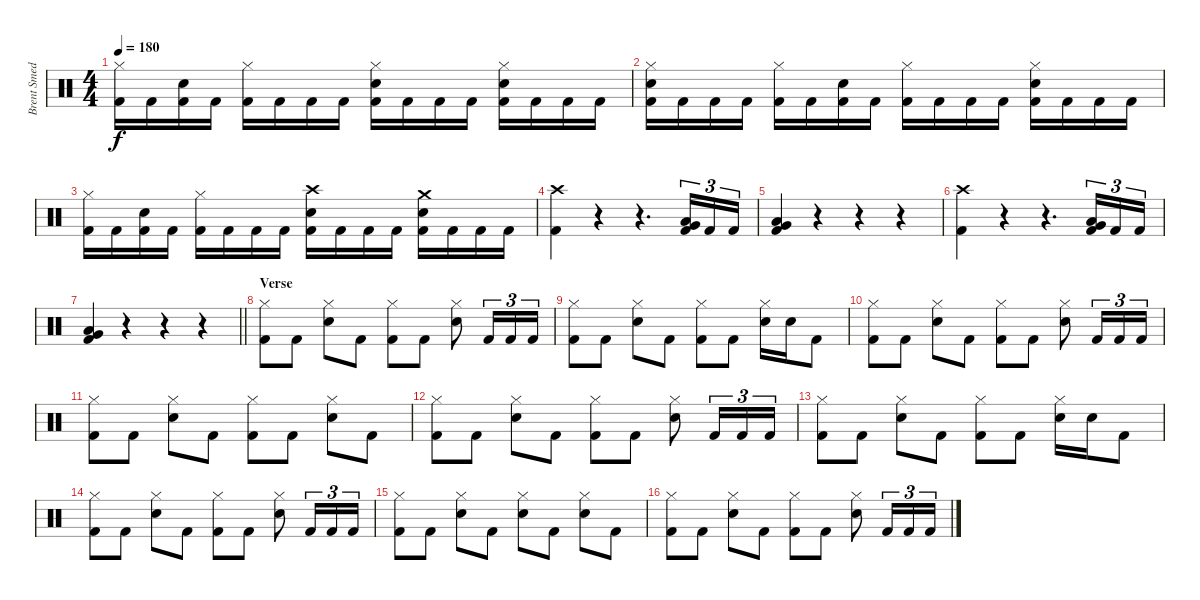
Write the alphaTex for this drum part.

\track ("Brent Smedley" "Brent Smed") {instrument percussion}
\staff {score}
\articulation defaults
\ts (4 4)
\tempo 180
\clef neutral
\ks c
("Hi-Hat (closed)" "Kick (hit) 2").16{dy f} "Kick (hit) 2".16 ("Snare (hit) 2" "Kick (hit) 2").16 "Kick (hit) 2".16 ("Hi-Hat (closed)" "Kick (hit) 2").16 "Kick (hit) 2".16 "Kick (hit) 2".16 "Kick (hit) 2".16 ("Hi-Hat (closed)" "Snare (hit) 2" "Kick (hit) 2").16 "Kick (hit) 2".16 "Kick (hit) 2".16 "Kick (hit) 2".16 ("Hi-Hat (closed)" "Snare (hit) 2" "Kick (hit) 2").16 "Kick (hit) 2".16 "Kick (hit) 2".16 "Kick (hit) 2".16 |
("Hi-Hat (closed)" "Snare (hit) 2" "Kick (hit) 2").16 "Kick (hit) 2".16 "Kick (hit) 2".16 "Kick (hit) 2".16 ("Hi-Hat (closed)" "Kick (hit) 2").16 "Kick (hit) 2".16 ("Snare (hit) 2" "Kick (hit) 2").16 "Kick (hit) 2".16 ("Hi-Hat (closed)" "Kick (hit) 2").16 "Kick (hit) 2".16 "Kick (hit) 2".16 "Kick (hit) 2".16 ("Hi-Hat (closed)" "Snare (hit) 2" "Kick (hit) 2").16 "Kick (hit) 2".16 "Kick (hit) 2".16 "Kick (hit) 2".16 |
("Hi-Hat (closed)" "Kick (hit) 2").16 "Kick (hit) 2".16 ("Snare (hit) 2" "Kick (hit) 2").16 "Kick (hit) 2".16 ("Hi-Hat (closed)" "Kick (hit) 2").16 "Kick (hit) 2".16 "Kick (hit) 2".16 "Kick (hit) 2".16 ("Crash high (hit)" "Snare (hit) 2" "Kick (hit) 2").16 "Kick (hit) 2".16 "Kick (hit) 2".16 "Kick (hit) 2".16 ("Crash medium (hit)" "Snare (hit) 2" "Kick (hit) 2").16 "Kick (hit) 2".16 "Kick (hit) 2".16 "Kick (hit) 2".16 |
("Crash high (hit)" "Kick (hit) 2").4 r.4 r.4{d} ("Low Tom (hit)" "Very Low Tom (hit)" "Kick (hit) 2").16{tu (3 2)} "Kick (hit) 2".16{tu (3 2)} "Kick (hit) 2".16{tu (3 2)} |
("Low Tom (hit)" "Very Low Tom (hit)" "Kick (hit) 2").4 r.4 r.4 r.4 |
("Crash high (hit)" "Kick (hit) 2").4 r.4 r.4{d} ("Low Tom (hit)" "Very Low Tom (hit)" "Kick (hit) 2").16{tu (3 2)} "Kick (hit) 2".16{tu (3 2)} "Kick (hit) 2".16{tu (3 2)} |
\barLineRight lightlight
("Low Tom (hit)" "Very Low Tom (hit)" "Kick (hit) 2").4 r.4 r.4 r.4 |
\section ("" "Verse")
("Hi-Hat (closed)" "Kick (hit) 2").8 "Kick (hit) 2".8 ("Hi-Hat (closed)" "Snare (hit) 2").8 "Kick (hit) 2".8 ("Hi-Hat (closed)" "Kick (hit) 2").8 "Kick (hit) 2".8 ("Hi-Hat (closed)" "Snare (hit) 2").8 "Kick (hit) 2".16{tu (3 2)} "Kick (hit) 2".16{tu (3 2)} "Kick (hit) 2".16{tu (3 2)} |
("Hi-Hat (closed)" "Kick (hit) 2").8 "Kick (hit) 2".8 ("Hi-Hat (closed)" "Snare (hit) 2").8 "Kick (hit) 2".8 ("Hi-Hat (closed)" "Kick (hit) 2").8 "Kick (hit) 2".8 ("Hi-Hat (closed)" "Snare (hit) 2").16 "Snare (hit) 2".16 "Kick (hit) 2".8 |
("Hi-Hat (closed)" "Kick (hit) 2").8 "Kick (hit) 2".8 ("Hi-Hat (closed)" "Snare (hit) 2").8 "Kick (hit) 2".8 ("Hi-Hat (closed)" "Kick (hit) 2").8 "Kick (hit) 2".8 ("Hi-Hat (closed)" "Snare (hit) 2").8 "Kick (hit) 2".16{tu (3 2)} "Kick (hit) 2".16{tu (3 2)} "Kick (hit) 2".16{tu (3 2)} |
("Hi-Hat (closed)" "Kick (hit) 2").8 "Kick (hit) 2".8 ("Hi-Hat (closed)" "Snare (hit) 2").8 "Kick (hit) 2".8 ("Hi-Hat (closed)" "Kick (hit) 2").8 "Kick (hit) 2".8 ("Hi-Hat (closed)" "Snare (hit) 2").8 "Kick (hit) 2".8 |
("Hi-Hat (closed)" "Kick (hit) 2").8 "Kick (hit) 2".8 ("Hi-Hat (closed)" "Snare (hit) 2").8 "Kick (hit) 2".8 ("Hi-Hat (closed)" "Kick (hit) 2").8 "Kick (hit) 2".8 ("Hi-Hat (closed)" "Snare (hit) 2").8 "Kick (hit) 2".16{tu (3 2)} "Kick (hit) 2".16{tu (3 2)} "Kick (hit) 2".16{tu (3 2)} |
("Hi-Hat (closed)" "Kick (hit) 2").8 "Kick (hit) 2".8 ("Hi-Hat (closed)" "Snare (hit) 2").8 "Kick (hit) 2".8 ("Hi-Hat (closed)" "Kick (hit) 2").8 "Kick (hit) 2".8 ("Hi-Hat (closed)" "Snare (hit) 2").16 "Snare (hit) 2".16 "Kick (hit) 2".8 |
("Hi-Hat (closed)" "Kick (hit) 2").8 "Kick (hit) 2".8 ("Hi-Hat (closed)" "Snare (hit) 2").8 "Kick (hit) 2".8 ("Hi-Hat (closed)" "Kick (hit) 2").8 "Kick (hit) 2".8 ("Hi-Hat (closed)" "Snare (hit) 2").8 "Kick (hit) 2".16{tu (3 2)} "Kick (hit) 2".16{tu (3 2)} "Kick (hit) 2".16{tu (3 2)} |
("Hi-Hat (closed)" "Kick (hit) 2").8 "Kick (hit) 2".8 ("Hi-Hat (closed)" "Snare (hit) 2").8 "Kick (hit) 2".8 ("Hi-Hat (closed)" "Snare (hit) 2").8 "Kick (hit) 2".8 ("Hi-Hat (closed)" "Snare (hit) 2").8 "Kick (hit) 2".8 |
("Hi-Hat (closed)" "Kick (hit) 2").8 "Kick (hit) 2".8 ("Hi-Hat (closed)" "Snare (hit) 2").8 "Kick (hit) 2".8 ("Hi-Hat (closed)" "Kick (hit) 2").8 "Kick (hit) 2".8 ("Hi-Hat (closed)" "Snare (hit) 2").8 "Kick (hit) 2".16{tu (3 2)} "Kick (hit) 2".16{tu (3 2)} "Kick (hit) 2".16{tu (3 2)}
